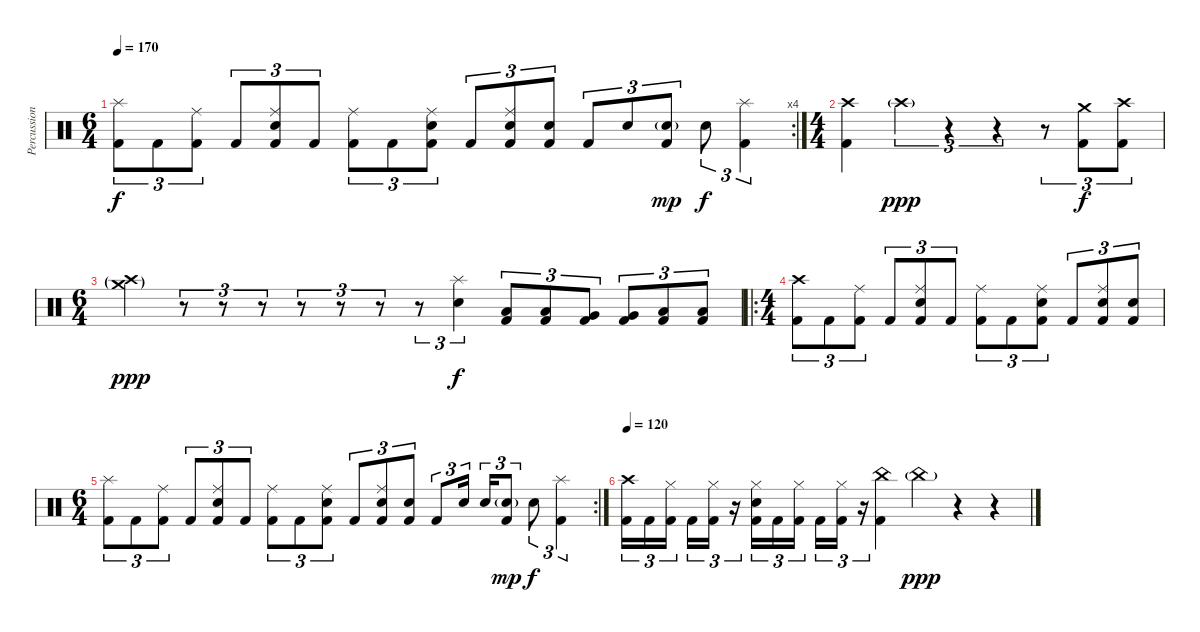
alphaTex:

\track ("Percussion" "Percussion") {instrument percussion}
\staff {score}
\articulation defaults
\rc 4
\ts (6 4)
\tempo 170
\clef neutral
\ks c
("Splash (hit)" "Kick (hit) 2").8{tu (3 2) dy f} "Kick (hit) 2".8{tu (3 2)} ("Ride (middle)" "Kick (hit) 2").8{tu (3 2)} "Kick (hit) 2".8{tu (3 2)} ("Ride (middle)" "Snare (hit) 2" "Kick (hit) 2").8{tu (3 2)} "Kick (hit) 2".8{tu (3 2)} ("Ride (middle)" "Kick (hit) 2").8{tu (3 2)} "Kick (hit) 2".8{tu (3 2)} ("Ride (middle)" "Snare (hit) 2" "Kick (hit) 2").8{tu (3 2)} "Kick (hit) 2".8{tu (3 2)} ("Ride (middle)" "Snare (hit) 2" "Kick (hit) 2").8{tu (3 2)} ("Snare (hit) 2" "Kick (hit) 2").8{tu (3 2)} "Kick (hit) 2".8{tu (3 2)} "Snare (hit) 2".8{tu (3 2)} ("Snare (hit) 2"{g} "Kick (hit) 2").8{tu (3 2) dy mp} "Snare (hit) 2".8{tu (3 2) dy f} ("Splash (hit)" "Kick (hit) 2").4{tu (3 2)} |
\ts (4 4)
("Crash high (hit)" "Kick (hit) 2").4 "Crash high (hit)"{g}.4{tu (3 2) dy ppp} r.4{tu (3 2)} r.4{tu (3 2)} r.8{tu (3 2)} ("Crash medium (hit)" "Kick (hit) 2").8{tu (3 2) dy f} ("Crash high (hit)" "Kick (hit) 2").8{tu (3 2)} |
\ts (6 4)
("Crash high (hit)"{g} "Crash medium (hit)"{g}).4{dy ppp} r.8{tu (3 2)} r.8{tu (3 2)} r.8{tu (3 2)} r.8{tu (3 2)} r.8{tu (3 2)} r.8{tu (3 2)} r.8{tu (3 2)} ("Splash (hit)" "Snare (hit) 2").4{tu (3 2) dy f} ("Low Tom (hit)" "Kick (hit) 2").8{tu (3 2)} ("Low Tom (hit)" "Kick (hit) 2").8{tu (3 2)} ("Very Low Tom (hit)" "Kick (hit) 2").8{tu (3 2)} ("Very Low Tom (hit)" "Kick (hit) 2").8{tu (3 2)} ("Low Floor Tom (hit)" "Kick (hit) 2").8{tu (3 2)} ("Low Floor Tom (hit)" "Kick (hit) 2").8{tu (3 2)} |
\ro
\ts (4 4)
("Crash high (hit)" "Kick (hit) 2").8{tu (3 2)} "Kick (hit) 2".8{tu (3 2)} ("Ride (middle)" "Kick (hit) 2").8{tu (3 2)} "Kick (hit) 2".8{tu (3 2)} ("Ride (middle)" "Snare (hit) 2" "Kick (hit) 2").8{tu (3 2)} "Kick (hit) 2".8{tu (3 2)} ("Ride (middle)" "Kick (hit) 2").8{tu (3 2)} "Kick (hit) 2".8{tu (3 2)} ("Ride (middle)" "Snare (hit) 2" "Kick (hit) 2").8{tu (3 2)} "Kick (hit) 2".8{tu (3 2)} ("Ride (middle)" "Snare (hit) 2" "Kick (hit) 2").8{tu (3 2)} ("Snare (hit) 2" "Kick (hit) 2").8{tu (3 2)} |
\rc 2
\ts (6 4)
("Splash (hit)" "Kick (hit) 2").8{tu (3 2)} "Kick (hit) 2".8{tu (3 2)} ("Ride (middle)" "Kick (hit) 2").8{tu (3 2)} "Kick (hit) 2".8{tu (3 2)} ("Ride (middle)" "Snare (hit) 2" "Kick (hit) 2").8{tu (3 2)} "Kick (hit) 2".8{tu (3 2)} ("Ride (middle)" "Kick (hit) 2").8{tu (3 2)} "Kick (hit) 2".8{tu (3 2)} ("Ride (middle)" "Snare (hit) 2" "Kick (hit) 2").8{tu (3 2)} "Kick (hit) 2".8{tu (3 2)} ("Ride (middle)" "Snare (hit) 2" "Kick (hit) 2").8{tu (3 2)} ("Snare (hit) 2" "Kick (hit) 2").8{tu (3 2)} "Kick (hit) 2".8{tu (3 2)} "Snare (hit) 2".16{tu (3 2)} "Snare (hit) 2".16{tu (3 2)} ("Snare (hit) 2"{g} "Kick (hit) 2").8{tu (3 2) dy mp} "Snare (hit) 2".8{tu (3 2) dy f} ("Splash (hit)" "Kick (hit) 2").4{tu (3 2)} |
\tempo 120
("Crash high (hit)" "Kick (hit) 2").16{tu (3 2)} "Kick (hit) 2".16{tu (3 2)} ("Hi-Hat (closed)" "Kick (hit) 2").16{tu (3 2)} "Kick (hit) 2".16{tu (3 2)} ("Hi-Hat (closed)" "Kick (hit) 2").16{tu (3 2)} r.16{tu (3 2)} ("Hi-Hat (closed)" "Snare (hit) 2" "Kick (hit) 2").16{tu (3 2)} "Kick (hit) 2".16{tu (3 2)} ("Hi-Hat (closed)" "Kick (hit) 2").16{tu (3 2)} "Kick (hit) 2".16{tu (3 2)} ("Hi-Hat (closed)" "Kick (hit) 2").16{tu (3 2)} r.16{tu (3 2)} ("China (hit)" "Kick (hit) 2").4 "China (hit)"{g}.4{dy ppp} r.4 r.4
